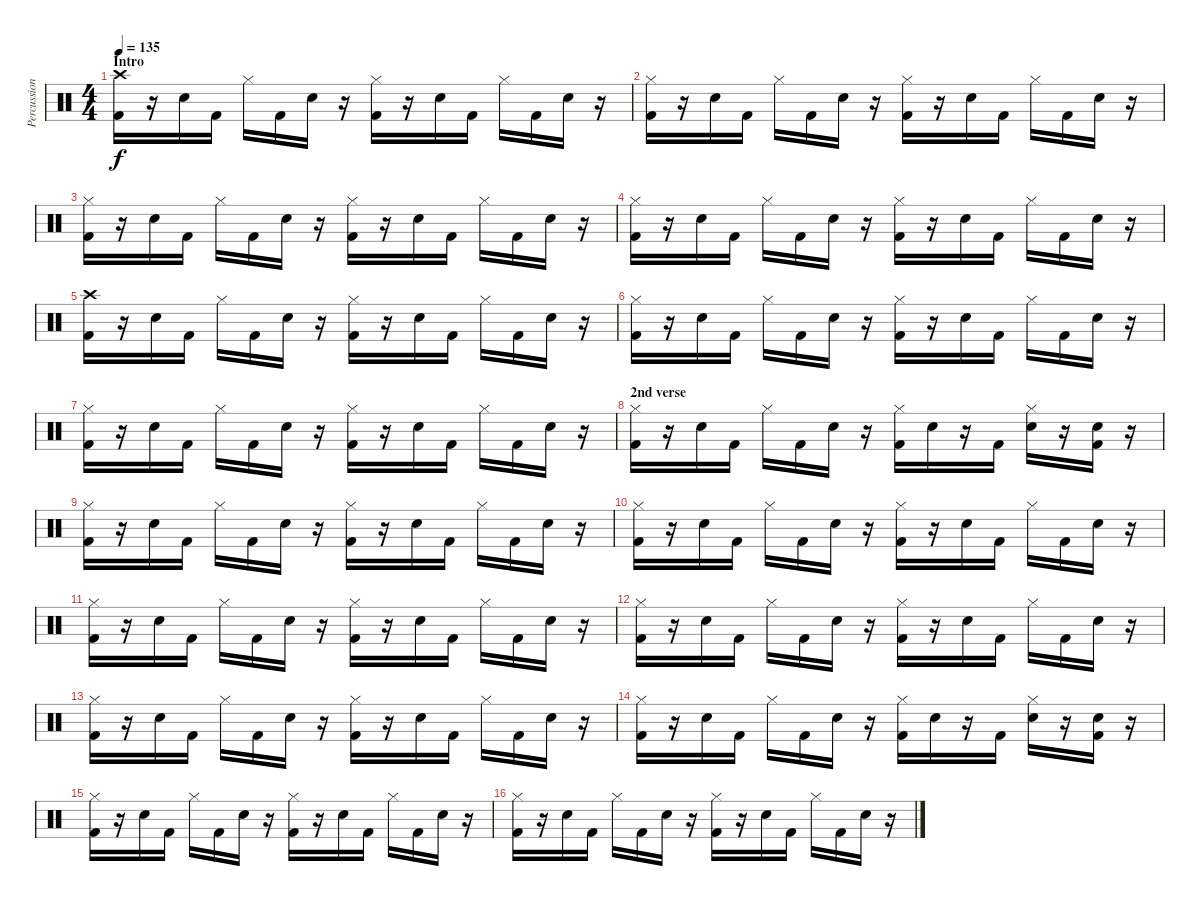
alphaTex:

\track ("Percussion" "Percussion") {instrument percussion}
\staff {score}
\articulation defaults
\ts (4 4)
\section ("" "Intro")
\tempo 135
\clef neutral
\ks c
("Crash high (hit)" "Kick (hit) 2").16{dy f} r.16 "Snare (hit) 2".16 "Kick (hit) 2".16 "Hi-Hat (closed)".16 "Kick (hit) 2".16 "Snare (hit) 2".16 r.16 ("Hi-Hat (closed)" "Kick (hit) 2").16 r.16 "Snare (hit) 2".16 "Kick (hit) 2".16 "Hi-Hat (closed)".16 "Kick (hit) 2".16 "Snare (hit) 2".16 r.16 |
("Hi-Hat (closed)" "Kick (hit) 2").16 r.16 "Snare (hit) 2".16 "Kick (hit) 2".16 "Hi-Hat (closed)".16 "Kick (hit) 2".16 "Snare (hit) 2".16 r.16 ("Hi-Hat (closed)" "Kick (hit) 2").16 r.16 "Snare (hit) 2".16 "Kick (hit) 2".16 "Hi-Hat (closed)".16 "Kick (hit) 2".16 "Snare (hit) 2".16 r.16 |
("Hi-Hat (closed)" "Kick (hit) 2").16 r.16 "Snare (hit) 2".16 "Kick (hit) 2".16 "Hi-Hat (closed)".16 "Kick (hit) 2".16 "Snare (hit) 2".16 r.16 ("Hi-Hat (closed)" "Kick (hit) 2").16 r.16 "Snare (hit) 2".16 "Kick (hit) 2".16 "Hi-Hat (closed)".16 "Kick (hit) 2".16 "Snare (hit) 2".16 r.16 |
("Hi-Hat (closed)" "Kick (hit) 2").16 r.16 "Snare (hit) 2".16 "Kick (hit) 2".16 "Hi-Hat (closed)".16 "Kick (hit) 2".16 "Snare (hit) 2".16 r.16 ("Hi-Hat (closed)" "Kick (hit) 2").16 r.16 "Snare (hit) 2".16 "Kick (hit) 2".16 "Hi-Hat (closed)".16 "Kick (hit) 2".16 "Snare (hit) 2".16 r.16 |
("Crash high (hit)" "Kick (hit) 2").16 r.16 "Snare (hit) 2".16 "Kick (hit) 2".16 "Hi-Hat (closed)".16 "Kick (hit) 2".16 "Snare (hit) 2".16 r.16 ("Hi-Hat (closed)" "Kick (hit) 2").16 r.16 "Snare (hit) 2".16 "Kick (hit) 2".16 "Hi-Hat (closed)".16 "Kick (hit) 2".16 "Snare (hit) 2".16 r.16 |
("Hi-Hat (closed)" "Kick (hit) 2").16 r.16 "Snare (hit) 2".16 "Kick (hit) 2".16 "Hi-Hat (closed)".16 "Kick (hit) 2".16 "Snare (hit) 2".16 r.16 ("Hi-Hat (closed)" "Kick (hit) 2").16 r.16 "Snare (hit) 2".16 "Kick (hit) 2".16 "Hi-Hat (closed)".16 "Kick (hit) 2".16 "Snare (hit) 2".16 r.16 |
("Hi-Hat (closed)" "Kick (hit) 2").16 r.16 "Snare (hit) 2".16 "Kick (hit) 2".16 "Hi-Hat (closed)".16 "Kick (hit) 2".16 "Snare (hit) 2".16 r.16 ("Hi-Hat (closed)" "Kick (hit) 2").16 r.16 "Snare (hit) 2".16 "Kick (hit) 2".16 "Hi-Hat (closed)".16 "Kick (hit) 2".16 "Snare (hit) 2".16 r.16 |
\section ("" "2nd verse")
("Hi-Hat (closed)" "Kick (hit) 2").16 r.16 "Snare (hit) 2".16 "Kick (hit) 2".16 "Hi-Hat (closed)".16 "Kick (hit) 2".16 "Snare (hit) 2".16 r.16 ("Hi-Hat (closed)" "Kick (hit) 2").16 "Snare (hit) 2".16 r.16 "Kick (hit) 2".16 ("Hi-Hat (closed)" "Snare (hit) 2").16 r.16 ("Snare (hit) 2" "Kick (hit) 2").16 r.16 |
("Hi-Hat (closed)" "Kick (hit) 2").16 r.16 "Snare (hit) 2".16 "Kick (hit) 2".16 "Hi-Hat (closed)".16 "Kick (hit) 2".16 "Snare (hit) 2".16 r.16 ("Hi-Hat (closed)" "Kick (hit) 2").16 r.16 "Snare (hit) 2".16 "Kick (hit) 2".16 "Hi-Hat (closed)".16 "Kick (hit) 2".16 "Snare (hit) 2".16 r.16 |
("Hi-Hat (closed)" "Kick (hit) 2").16 r.16 "Snare (hit) 2".16 "Kick (hit) 2".16 "Hi-Hat (closed)".16 "Kick (hit) 2".16 "Snare (hit) 2".16 r.16 ("Hi-Hat (closed)" "Kick (hit) 2").16 r.16 "Snare (hit) 2".16 "Kick (hit) 2".16 "Hi-Hat (closed)".16 "Kick (hit) 2".16 "Snare (hit) 2".16 r.16 |
("Hi-Hat (closed)" "Kick (hit) 2").16 r.16 "Snare (hit) 2".16 "Kick (hit) 2".16 "Hi-Hat (closed)".16 "Kick (hit) 2".16 "Snare (hit) 2".16 r.16 ("Hi-Hat (closed)" "Kick (hit) 2").16 r.16 "Snare (hit) 2".16 "Kick (hit) 2".16 "Hi-Hat (closed)".16 "Kick (hit) 2".16 "Snare (hit) 2".16 r.16 |
("Hi-Hat (closed)" "Kick (hit) 2").16 r.16 "Snare (hit) 2".16 "Kick (hit) 2".16 "Hi-Hat (closed)".16 "Kick (hit) 2".16 "Snare (hit) 2".16 r.16 ("Hi-Hat (closed)" "Kick (hit) 2").16 r.16 "Snare (hit) 2".16 "Kick (hit) 2".16 "Hi-Hat (closed)".16 "Kick (hit) 2".16 "Snare (hit) 2".16 r.16 |
("Hi-Hat (closed)" "Kick (hit) 2").16 r.16 "Snare (hit) 2".16 "Kick (hit) 2".16 "Hi-Hat (closed)".16 "Kick (hit) 2".16 "Snare (hit) 2".16 r.16 ("Hi-Hat (closed)" "Kick (hit) 2").16 r.16 "Snare (hit) 2".16 "Kick (hit) 2".16 "Hi-Hat (closed)".16 "Kick (hit) 2".16 "Snare (hit) 2".16 r.16 |
("Hi-Hat (closed)" "Kick (hit) 2").16 r.16 "Snare (hit) 2".16 "Kick (hit) 2".16 "Hi-Hat (closed)".16 "Kick (hit) 2".16 "Snare (hit) 2".16 r.16 ("Hi-Hat (closed)" "Kick (hit) 2").16 "Snare (hit) 2".16 r.16 "Kick (hit) 2".16 ("Hi-Hat (closed)" "Snare (hit) 2").16 r.16 ("Snare (hit) 2" "Kick (hit) 2").16 r.16 |
("Hi-Hat (closed)" "Kick (hit) 2").16 r.16 "Snare (hit) 2".16 "Kick (hit) 2".16 "Hi-Hat (closed)".16 "Kick (hit) 2".16 "Snare (hit) 2".16 r.16 ("Hi-Hat (closed)" "Kick (hit) 2").16 r.16 "Snare (hit) 2".16 "Kick (hit) 2".16 "Hi-Hat (closed)".16 "Kick (hit) 2".16 "Snare (hit) 2".16 r.16 |
("Hi-Hat (closed)" "Kick (hit) 2").16 r.16 "Snare (hit) 2".16 "Kick (hit) 2".16 "Hi-Hat (closed)".16 "Kick (hit) 2".16 "Snare (hit) 2".16 r.16 ("Hi-Hat (closed)" "Kick (hit) 2").16 r.16 "Snare (hit) 2".16 "Kick (hit) 2".16 "Hi-Hat (closed)".16 "Kick (hit) 2".16 "Snare (hit) 2".16 r.16
